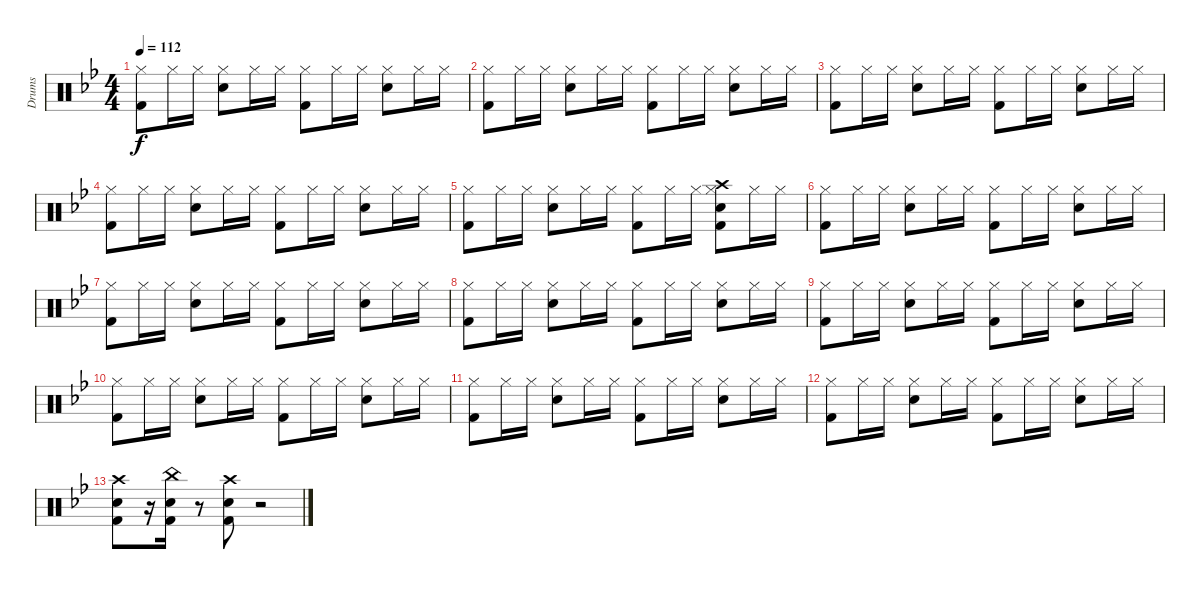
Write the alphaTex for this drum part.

\track ("Drums" "Drums") {instrument percussion}
\staff {score}
\articulation defaults
\ts (4 4)
\tempo 112
\clef neutral
\ks bb
("Hi-Hat (closed)" "Kick (hit) 2").8{dy f} "Hi-Hat (closed)".16 "Hi-Hat (closed)".16 ("Snare (hit) 2" "Hi-Hat (closed)").8 "Hi-Hat (closed)".16 "Hi-Hat (closed)".16 ("Hi-Hat (closed)" "Kick (hit) 2").8 "Hi-Hat (closed)".16 "Hi-Hat (closed)".16 ("Snare (hit) 2" "Hi-Hat (closed)").8 "Hi-Hat (closed)".16 "Hi-Hat (closed)".16 |
("Hi-Hat (closed)" "Kick (hit) 2").8 "Hi-Hat (closed)".16 "Hi-Hat (closed)".16 ("Snare (hit) 2" "Hi-Hat (closed)").8 "Hi-Hat (closed)".16 "Hi-Hat (closed)".16 ("Hi-Hat (closed)" "Kick (hit) 2").8 "Hi-Hat (closed)".16 "Hi-Hat (closed)".16 ("Snare (hit) 2" "Hi-Hat (closed)").8 "Hi-Hat (closed)".16 "Hi-Hat (closed)".16 |
("Hi-Hat (closed)" "Kick (hit) 2").8 "Hi-Hat (closed)".16 "Hi-Hat (closed)".16 ("Snare (hit) 2" "Hi-Hat (closed)").8 "Hi-Hat (closed)".16 "Hi-Hat (closed)".16 ("Hi-Hat (closed)" "Kick (hit) 2").8 "Hi-Hat (closed)".16 "Hi-Hat (closed)".16 ("Snare (hit) 2" "Hi-Hat (closed)").8 "Hi-Hat (closed)".16 "Hi-Hat (closed)".16 |
("Hi-Hat (closed)" "Kick (hit) 2").8 "Hi-Hat (closed)".16 "Hi-Hat (closed)".16 ("Snare (hit) 2" "Hi-Hat (closed)").8 "Hi-Hat (closed)".16 "Hi-Hat (closed)".16 ("Hi-Hat (closed)" "Kick (hit) 2").8 "Hi-Hat (closed)".16 "Hi-Hat (closed)".16 ("Snare (hit) 2" "Hi-Hat (closed)").8 "Hi-Hat (closed)".16 "Hi-Hat (closed)".16 |
("Hi-Hat (closed)" "Kick (hit) 2").8 "Hi-Hat (closed)".16 "Hi-Hat (closed)".16 ("Snare (hit) 2" "Hi-Hat (closed)").8 "Hi-Hat (closed)".16 "Hi-Hat (closed)".16 ("Hi-Hat (closed)" "Kick (hit) 2").8 "Hi-Hat (closed)".16 "Hi-Hat (closed)".16 ("Snare (hit) 2" "Hi-Hat (closed)" "Crash high (hit)" "Kick (hit) 2").8 "Hi-Hat (closed)".16 "Hi-Hat (closed)".16 |
("Hi-Hat (closed)" "Kick (hit) 2").8 "Hi-Hat (closed)".16 "Hi-Hat (closed)".16 ("Snare (hit) 2" "Hi-Hat (closed)").8 "Hi-Hat (closed)".16 "Hi-Hat (closed)".16 ("Hi-Hat (closed)" "Kick (hit) 2").8 "Hi-Hat (closed)".16 "Hi-Hat (closed)".16 ("Snare (hit) 2" "Hi-Hat (closed)").8 "Hi-Hat (closed)".16 "Hi-Hat (closed)".16 |
("Hi-Hat (closed)" "Kick (hit) 2").8 "Hi-Hat (closed)".16 "Hi-Hat (closed)".16 ("Snare (hit) 2" "Hi-Hat (closed)").8 "Hi-Hat (closed)".16 "Hi-Hat (closed)".16 ("Hi-Hat (closed)" "Kick (hit) 2").8 "Hi-Hat (closed)".16 "Hi-Hat (closed)".16 ("Snare (hit) 2" "Hi-Hat (closed)").8 "Hi-Hat (closed)".16 "Hi-Hat (closed)".16 |
("Hi-Hat (closed)" "Kick (hit) 2").8 "Hi-Hat (closed)".16 "Hi-Hat (closed)".16 ("Snare (hit) 2" "Hi-Hat (closed)").8 "Hi-Hat (closed)".16 "Hi-Hat (closed)".16 ("Hi-Hat (closed)" "Kick (hit) 2").8 "Hi-Hat (closed)".16 "Hi-Hat (closed)".16 ("Snare (hit) 2" "Hi-Hat (closed)").8 "Hi-Hat (closed)".16 "Hi-Hat (closed)".16 |
("Hi-Hat (closed)" "Kick (hit) 2").8 "Hi-Hat (closed)".16 "Hi-Hat (closed)".16 ("Snare (hit) 2" "Hi-Hat (closed)").8 "Hi-Hat (closed)".16 "Hi-Hat (closed)".16 ("Hi-Hat (closed)" "Kick (hit) 2").8 "Hi-Hat (closed)".16 "Hi-Hat (closed)".16 ("Snare (hit) 2" "Hi-Hat (closed)").8 "Hi-Hat (closed)".16 "Hi-Hat (closed)".16 |
("Hi-Hat (closed)" "Kick (hit) 2").8 "Hi-Hat (closed)".16 "Hi-Hat (closed)".16 ("Snare (hit) 2" "Hi-Hat (closed)").8 "Hi-Hat (closed)".16 "Hi-Hat (closed)".16 ("Hi-Hat (closed)" "Kick (hit) 2").8 "Hi-Hat (closed)".16 "Hi-Hat (closed)".16 ("Snare (hit) 2" "Hi-Hat (closed)").8 "Hi-Hat (closed)".16 "Hi-Hat (closed)".16 |
("Hi-Hat (closed)" "Kick (hit) 2").8 "Hi-Hat (closed)".16 "Hi-Hat (closed)".16 ("Snare (hit) 2" "Hi-Hat (closed)").8 "Hi-Hat (closed)".16 "Hi-Hat (closed)".16 ("Hi-Hat (closed)" "Kick (hit) 2").8 "Hi-Hat (closed)".16 "Hi-Hat (closed)".16 ("Snare (hit) 2" "Hi-Hat (closed)").8 "Hi-Hat (closed)".16 "Hi-Hat (closed)".16 |
("Hi-Hat (closed)" "Kick (hit) 2").8 "Hi-Hat (closed)".16 "Hi-Hat (closed)".16 ("Snare (hit) 2" "Hi-Hat (closed)").8 "Hi-Hat (closed)".16 "Hi-Hat (closed)".16 ("Hi-Hat (closed)" "Kick (hit) 2").8 "Hi-Hat (closed)".16 "Hi-Hat (closed)".16 ("Snare (hit) 2" "Hi-Hat (closed)").8 "Hi-Hat (closed)".16 "Hi-Hat (closed)".16 |
("Kick (hit) 2" "Snare (hit) 2" "Crash high (hit)").8 r.16 ("Kick (hit) 2" "Snare (hit) 2" "China (hit)").16 r.8 ("Kick (hit) 2" "Snare (hit) 2" "Crash high (hit)").8 r.2
